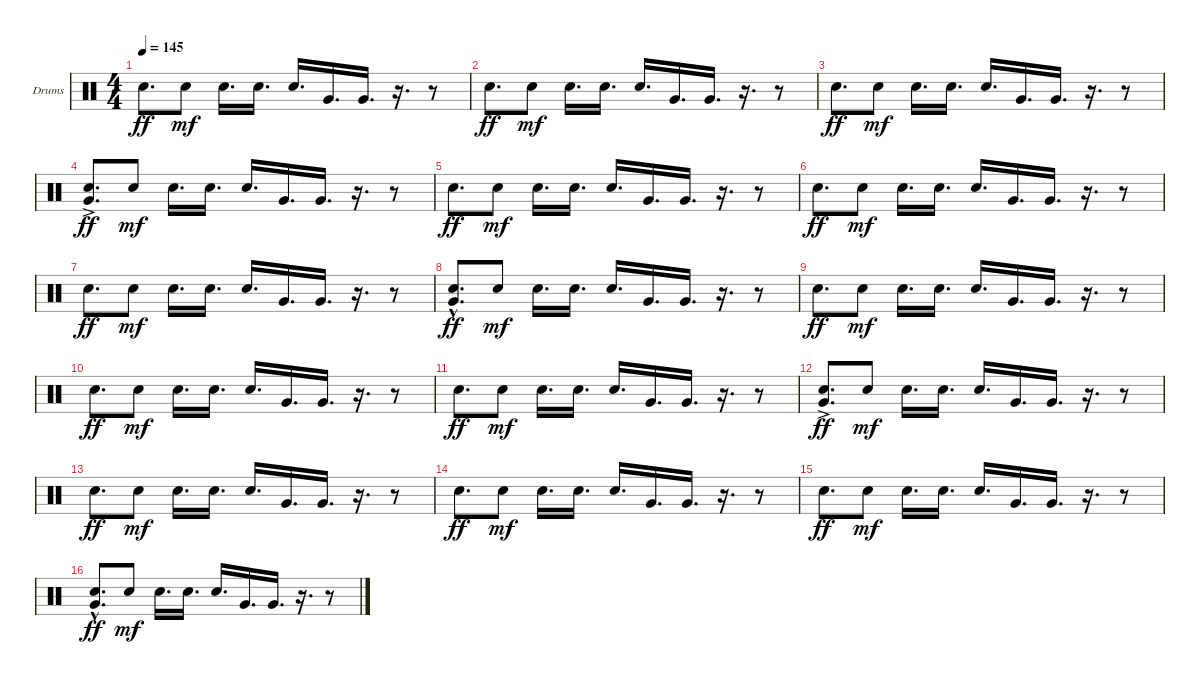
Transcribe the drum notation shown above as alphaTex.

\defaultSystemsLayout 4
\bracketExtendMode groupsimilarinstruments
\firstSystemTrackNameOrientation horizontal
\otherSystemsTrackNameOrientation horizontal
\track ("Drumkit" "Drums") {instrument percussion}
\staff {score}
\articulation defaults
\ts (4 4)
\tempo 145
\clef neutral
\ks c "Snare (hit) 2".8{d dy ff} "Snare (hit) 2".8{dy mf} "Snare (hit) 2".16{d} "Snare (hit) 2".16{d} "Snare (hit) 2".16{d} "Very Low Tom (hit)".16{d} "Very Low Tom (hit)".16{d}
r.16{d} r.8 |
"Snare (hit) 2".8{d dy ff} "Snare (hit) 2".8{dy mf} "Snare (hit) 2".16{d} "Snare (hit) 2".16{d} "Snare (hit) 2".16{d} "Very Low Tom (hit)".16{d} "Very Low Tom (hit)".16{d} r.16{d} r.8 |
"Snare (hit) 2".8{d dy ff} "Snare (hit) 2".8{dy mf} "Snare (hit) 2".16{d} "Snare (hit) 2".16{d} "Snare (hit) 2".16{d} "Very Low Tom (hit)".16{d} "Very Low Tom (hit)".16{d} r.16{d} r.8 |
("Snare (hit) 2" "Very Low Tom (hit)"{ac}).8{d dy ff} "Snare (hit) 2".8{dy mf} "Snare (hit) 2".16{d} "Snare (hit) 2".16{d} "Snare (hit) 2".16{d} "Very Low Tom (hit)".16{d} "Very Low Tom (hit)".16{d} r.16{d} r.8 |
"Snare (hit) 2".8{d dy ff} "Snare (hit) 2".8{dy mf} "Snare (hit) 2".16{d} "Snare (hit) 2".16{d} "Snare (hit) 2".16{d} "Very Low Tom (hit)".16{d} "Very Low Tom (hit)".16{d} r.16{d} r.8 |
"Snare (hit) 2".8{d dy ff} "Snare (hit) 2".8{dy mf} "Snare (hit) 2".16{d} "Snare (hit) 2".16{d} "Snare (hit) 2".16{d} "Very Low Tom (hit)".16{d} "Very Low Tom (hit)".16{d} r.16{d} r.8 |
"Snare (hit) 2".8{d dy ff} "Snare (hit) 2".8{dy mf} "Snare (hit) 2".16{d} "Snare (hit) 2".16{d} "Snare (hit) 2".16{d} "Very Low Tom (hit)".16{d} "Very Low Tom (hit)".16{d} r.16{d} r.8 |
("Snare (hit) 2" "Very Low Tom (hit)"{hac}).8{d dy ff} "Snare (hit) 2".8{dy mf} "Snare (hit) 2".16{d} "Snare (hit) 2".16{d} "Snare (hit) 2".16{d} "Very Low Tom (hit)".16{d} "Very Low Tom (hit)".16{d} r.16{d} r.8 |
"Snare (hit) 2".8{d dy ff} "Snare (hit) 2".8{dy mf} "Snare (hit) 2".16{d} "Snare (hit) 2".16{d} "Snare (hit) 2".16{d} "Very Low Tom (hit)".16{d} "Very Low Tom (hit)".16{d} r.16{d} r.8 |
"Snare (hit) 2".8{d dy ff} "Snare (hit) 2".8{dy mf} "Snare (hit) 2".16{d} "Snare (hit) 2".16{d} "Snare (hit) 2".16{d} "Very Low Tom (hit)".16{d} "Very Low Tom (hit)".16{d} r.16{d} r.8 |
"Snare (hit) 2".8{d dy ff} "Snare (hit) 2".8{dy mf} "Snare (hit) 2".16{d} "Snare (hit) 2".16{d} "Snare (hit) 2".16{d} "Very Low Tom (hit)".16{d} "Very Low Tom (hit)".16{d} r.16{d} r.8 |
("Snare (hit) 2" "Very Low Tom (hit)"{ac}).8{d dy ff} "Snare (hit) 2".8{dy mf} "Snare (hit) 2".16{d} "Snare (hit) 2".16{d} "Snare (hit) 2".16{d} "Very Low Tom (hit)".16{d} "Very Low Tom (hit)".16{d} r.16{d} r.8 |
"Snare (hit) 2".8{d dy ff} "Snare (hit) 2".8{dy mf} "Snare (hit) 2".16{d} "Snare (hit) 2".16{d} "Snare (hit) 2".16{d} "Very Low Tom (hit)".16{d} "Very Low Tom (hit)".16{d} r.16{d} r.8 |
"Snare (hit) 2".8{d dy ff} "Snare (hit) 2".8{dy mf} "Snare (hit) 2".16{d} "Snare (hit) 2".16{d} "Snare (hit) 2".16{d} "Very Low Tom (hit)".16{d} "Very Low Tom (hit)".16{d} r.16{d} r.8 |
"Snare (hit) 2".8{d dy ff} "Snare (hit) 2".8{dy mf} "Snare (hit) 2".16{d} "Snare (hit) 2".16{d} "Snare (hit) 2".16{d} "Very Low Tom (hit)".16{d} "Very Low Tom (hit)".16{d} r.16{d} r.8 |
("Snare (hit) 2" "Very Low Tom (hit)"{hac}).8{d dy ff} "Snare (hit) 2".8{dy mf} "Snare (hit) 2".16{d} "Snare (hit) 2".16{d} "Snare (hit) 2".16{d} "Very Low Tom (hit)".16{d} "Very Low Tom (hit)".16{d} r.16{d} r.8
